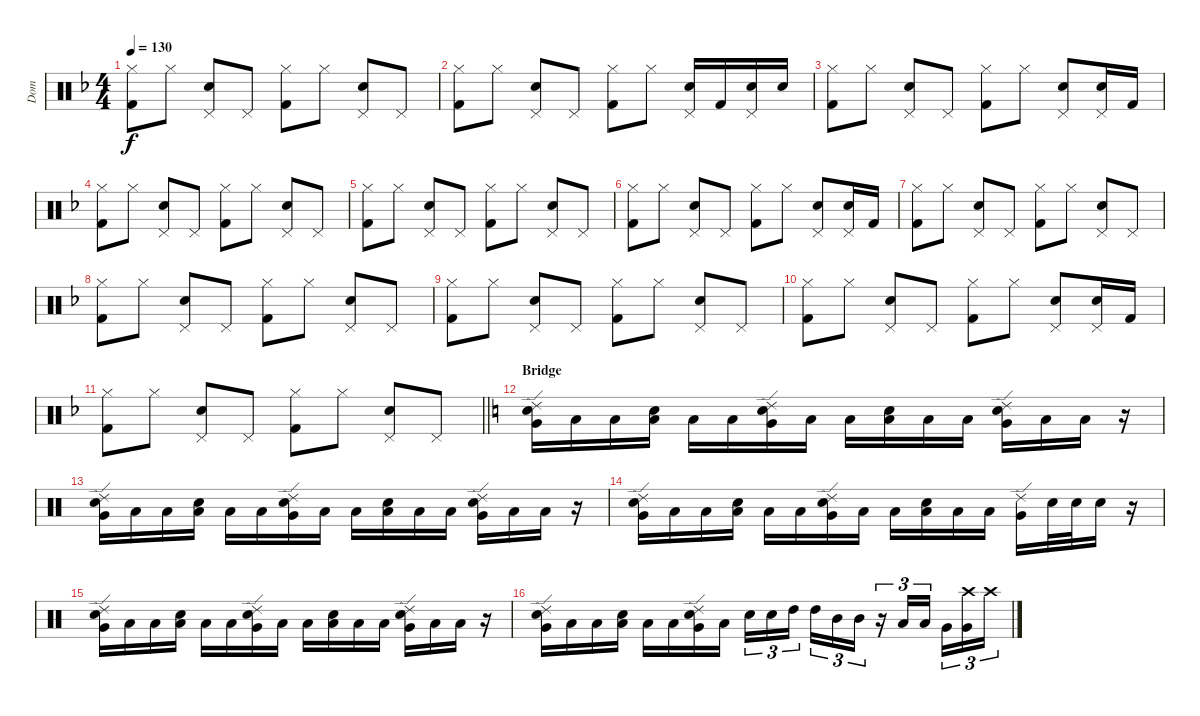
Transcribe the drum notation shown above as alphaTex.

\track ("Dom" "Dom") {instrument percussion}
\staff {score}
\articulation defaults
\ts (4 4)
\tempo 130
\clef neutral
\ks f
("Hi-Hat (closed)" "Kick (hit) 2").8{dy f} "Hi-Hat (closed)".8 ("Pedal Hi-Hat (hit)" "Electric Snare (hit)").8 "Pedal Hi-Hat (hit)".8 ("Hi-Hat (closed)" "Kick (hit) 2").8 "Hi-Hat (closed)".8 ("Pedal Hi-Hat (hit)" "Electric Snare (hit)").8 "Pedal Hi-Hat (hit)".8 |
("Hi-Hat (closed)" "Kick (hit) 2").8 "Hi-Hat (closed)".8 ("Pedal Hi-Hat (hit)" "Electric Snare (hit)").8 "Pedal Hi-Hat (hit)".8 ("Hi-Hat (closed)" "Kick (hit) 2").8 "Hi-Hat (closed)".8 ("Pedal Hi-Hat (hit)" "Electric Snare (hit)").16 "Kick (hit) 2".16 ("Pedal Hi-Hat (hit)" "Electric Snare (hit)").16 "Electric Snare (hit)".16 |
("Hi-Hat (closed)" "Kick (hit) 2").8 "Hi-Hat (closed)".8 ("Pedal Hi-Hat (hit)" "Electric Snare (hit)").8 "Pedal Hi-Hat (hit)".8 ("Hi-Hat (closed)" "Kick (hit) 2").8 "Hi-Hat (closed)".8 ("Pedal Hi-Hat (hit)" "Electric Snare (hit)").8 ("Pedal Hi-Hat (hit)" "Electric Snare (hit)").16 "Kick (hit) 2".16 |
("Hi-Hat (closed)" "Kick (hit) 2").8 "Hi-Hat (closed)".8 ("Pedal Hi-Hat (hit)" "Electric Snare (hit)").8 "Pedal Hi-Hat (hit)".8 ("Hi-Hat (closed)" "Kick (hit) 2").8 "Hi-Hat (closed)".8 ("Pedal Hi-Hat (hit)" "Electric Snare (hit)").8 "Pedal Hi-Hat (hit)".8 |
("Hi-Hat (closed)" "Kick (hit) 2").8 "Hi-Hat (closed)".8 ("Pedal Hi-Hat (hit)" "Electric Snare (hit)").8 "Pedal Hi-Hat (hit)".8 ("Hi-Hat (closed)" "Kick (hit) 2").8 "Hi-Hat (closed)".8 ("Pedal Hi-Hat (hit)" "Electric Snare (hit)").8 "Pedal Hi-Hat (hit)".8 |
("Hi-Hat (closed)" "Kick (hit) 2").8 "Hi-Hat (closed)".8 ("Pedal Hi-Hat (hit)" "Electric Snare (hit)").8 "Pedal Hi-Hat (hit)".8 ("Hi-Hat (closed)" "Kick (hit) 2").8 "Hi-Hat (closed)".8 ("Pedal Hi-Hat (hit)" "Electric Snare (hit)").8 ("Pedal Hi-Hat (hit)" "Electric Snare (hit)").16 "Kick (hit) 2".16 |
("Hi-Hat (closed)" "Kick (hit) 2").8 "Hi-Hat (closed)".8 ("Pedal Hi-Hat (hit)" "Electric Snare (hit)").8 "Pedal Hi-Hat (hit)".8 ("Hi-Hat (closed)" "Kick (hit) 2").8 "Hi-Hat (closed)".8 ("Pedal Hi-Hat (hit)" "Electric Snare (hit)").8 "Pedal Hi-Hat (hit)".8 |
("Hi-Hat (closed)" "Kick (hit) 2").8 "Hi-Hat (closed)".8 ("Pedal Hi-Hat (hit)" "Electric Snare (hit)").8 "Pedal Hi-Hat (hit)".8 ("Hi-Hat (closed)" "Kick (hit) 2").8 "Hi-Hat (closed)".8 ("Pedal Hi-Hat (hit)" "Electric Snare (hit)").8 "Pedal Hi-Hat (hit)".8 |
("Hi-Hat (closed)" "Kick (hit) 2").8 "Hi-Hat (closed)".8 ("Pedal Hi-Hat (hit)" "Electric Snare (hit)").8 "Pedal Hi-Hat (hit)".8 ("Hi-Hat (closed)" "Kick (hit) 2").8 "Hi-Hat (closed)".8 ("Pedal Hi-Hat (hit)" "Electric Snare (hit)").8 "Pedal Hi-Hat (hit)".8 |
("Hi-Hat (closed)" "Kick (hit) 2").8 "Hi-Hat (closed)".8 ("Pedal Hi-Hat (hit)" "Electric Snare (hit)").8 "Pedal Hi-Hat (hit)".8 ("Hi-Hat (closed)" "Kick (hit) 2").8 "Hi-Hat (closed)".8 ("Pedal Hi-Hat (hit)" "Electric Snare (hit)").8 ("Pedal Hi-Hat (hit)" "Electric Snare (hit)").16 "Kick (hit) 2".16 |
\barLineRight lightlight
("Hi-Hat (closed)" "Kick (hit) 2").8 "Hi-Hat (closed)".8 ("Pedal Hi-Hat (hit)" "Electric Snare (hit)").8 "Pedal Hi-Hat (hit)".8 ("Hi-Hat (closed)" "Kick (hit) 2").8 "Hi-Hat (closed)".8 ("Pedal Hi-Hat (hit)" "Electric Snare (hit)").8 "Pedal Hi-Hat (hit)".8 |
\section ("" "Bridge")
\ks c
("Ride (edge) 2" "Snare (hit) 2" "Very Low Tom (hit)").16 "Low Floor Tom (hit)".16 "Low Floor Tom (hit)".16 ("Snare (hit) 2" "Low Floor Tom (hit)").16 "Low Floor Tom (hit)".16 "Low Floor Tom (hit)".16 ("Ride (edge) 2" "Snare (hit) 2" "Very Low Tom (hit)").16 "Low Floor Tom (hit)".16 "Low Floor Tom (hit)".16 ("Snare (hit) 2" "Low Floor Tom (hit)").16 "Low Floor Tom (hit)".16 "Low Floor Tom (hit)".16 ("Ride (edge) 2" "Snare (hit) 2" "Very Low Tom (hit)").16 "Low Floor Tom (hit)".16 "Low Floor Tom (hit)".16 r.16 |
("Ride (edge) 2" "Snare (hit) 2" "Very Low Tom (hit)").16 "Low Floor Tom (hit)".16 "Low Floor Tom (hit)".16 ("Snare (hit) 2" "Low Floor Tom (hit)").16 "Low Floor Tom (hit)".16 "Low Floor Tom (hit)".16 ("Ride (edge) 2" "Snare (hit) 2" "Very Low Tom (hit)").16 "Low Floor Tom (hit)".16 "Low Floor Tom (hit)".16 ("Snare (hit) 2" "Low Floor Tom (hit)").16 "Low Floor Tom (hit)".16 "Low Floor Tom (hit)".16 ("Ride (edge) 2" "Snare (hit) 2" "Very Low Tom (hit)").16 "Low Floor Tom (hit)".16 "Low Floor Tom (hit)".16 r.16 |
("Ride (edge) 2" "Snare (hit) 2" "Very Low Tom (hit)").16 "Low Floor Tom (hit)".16 "Low Floor Tom (hit)".16 ("Snare (hit) 2" "Low Floor Tom (hit)").16 "Low Floor Tom (hit)".16 "Low Floor Tom (hit)".16 ("Ride (edge) 2" "Snare (hit) 2" "Very Low Tom (hit)").16 "Low Floor Tom (hit)".16 "Low Floor Tom (hit)".16 ("Snare (hit) 2" "Low Floor Tom (hit)").16 "Low Floor Tom (hit)".16 "Low Floor Tom (hit)".16 ("Ride (edge) 2" "Very Low Tom (hit)").16 "Snare (hit) 2".32 "Snare (hit) 2".32 "Snare (hit) 2".16 r.16 |
("Ride (edge) 2" "Snare (hit) 2" "Very Low Tom (hit)").16 "Low Floor Tom (hit)".16 "Low Floor Tom (hit)".16 ("Snare (hit) 2" "Low Floor Tom (hit)").16 "Low Floor Tom (hit)".16 "Low Floor Tom (hit)".16 ("Ride (edge) 2" "Snare (hit) 2" "Very Low Tom (hit)").16 "Low Floor Tom (hit)".16 "Low Floor Tom (hit)".16 ("Snare (hit) 2" "Low Floor Tom (hit)").16 "Low Floor Tom (hit)".16 "Low Floor Tom (hit)".16 ("Ride (edge) 2" "Snare (hit) 2" "Very Low Tom (hit)").16 "Low Floor Tom (hit)".16 "Low Floor Tom (hit)".16 r.16 |
("Ride (edge) 2" "Snare (hit) 2" "Very Low Tom (hit)").16 "Low Floor Tom (hit)".16 "Low Floor Tom (hit)".16 ("Snare (hit) 2" "Low Floor Tom (hit)").16 "Low Floor Tom (hit)".16 "Low Floor Tom (hit)".16 ("Ride (edge) 2" "Snare (hit) 2" "Very Low Tom (hit)").16 "Low Floor Tom (hit)".16 "Electric Snare (hit)".16{tu (3 2)} "Electric Snare (hit)".16{tu (3 2)} "High Tom (hit)".16{tu (3 2) beam splitsecondary} "High Tom (hit)".16{tu (3 2)} "Mid Tom (hit)".16{tu (3 2)} "Mid Tom (hit)".16{tu (3 2)} r.16{tu (3 2)} "Low Tom (hit)".16{tu (3 2)} "Low Tom (hit)".16{tu (3 2) beam splitsecondary} "Very Low Tom (hit)".16{tu (3 2)} ("Crash high (hit)" "Very Low Tom (hit)").16{tu (3 2)} "Crash high (hit)".16{tu (3 2)}
